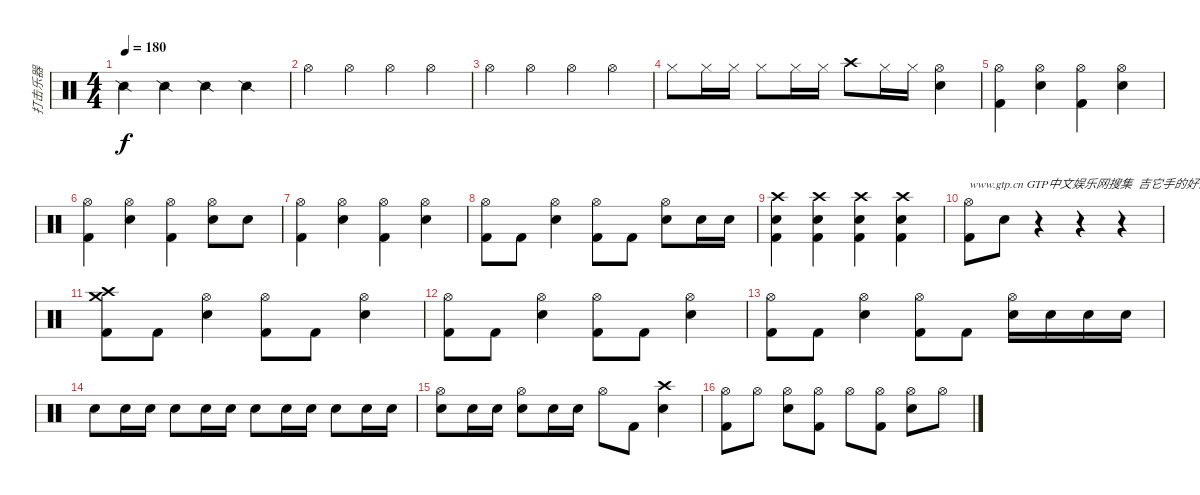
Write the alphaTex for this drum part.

\track ("打击乐器" "打击乐器") {instrument percussion}
\staff {score}
\articulation defaults
\ts (4 4)
\tempo 180
\clef neutral
\ks c "Snare (side stick) 2".4{dy f} "Snare (side stick) 2".4 "Snare (side stick) 2".4 "Snare (side stick) 2".4
|
"Hi-Hat (open)".4 "Hi-Hat (open)".4 "Hi-Hat (open)".4 "Hi-Hat (open)".4 |
"Hi-Hat (open)".4 "Hi-Hat (open)".4 "Hi-Hat (open)".4 "Hi-Hat (open)".4 |
"Hi-Hat (closed)".8 "Hi-Hat (closed)".16 "Hi-Hat (closed)".16 "Hi-Hat (closed)".8 "Hi-Hat (closed)".16 "Hi-Hat (closed)".16 "Crash high (hit)".8 "Hi-Hat (closed)".16 "Hi-Hat (closed)".16 ("Hi-Hat (open)" "Snare (hit) 2").4 |
("Hi-Hat (open)" "Kick (hit) 2").4 ("Hi-Hat (open)" "Snare (hit) 2").4 ("Hi-Hat (open)" "Kick (hit) 2").4 ("Hi-Hat (open)" "Snare (hit) 2").4 |
("Hi-Hat (open)" "Kick (hit) 2").4 ("Hi-Hat (open)" "Snare (hit) 2").4 ("Hi-Hat (open)" "Kick (hit) 2").4 ("Hi-Hat (open)" "Snare (hit) 2").8 "Snare (hit) 2".8 |
("Hi-Hat (open)" "Kick (hit) 2").4 ("Hi-Hat (open)" "Snare (hit) 2").4 ("Hi-Hat (open)" "Kick (hit) 2").4 ("Hi-Hat (open)" "Snare (hit) 2").4 |
("Hi-Hat (open)" "Kick (hit) 2").8 "Kick (hit) 2".8 ("Hi-Hat (open)" "Snare (hit) 2").4 ("Hi-Hat (open)" "Kick (hit) 2").8 "Kick (hit) 2".8 ("Hi-Hat (open)" "Snare (hit) 2").8 "Snare (hit) 2".16 "Snare (hit) 2".16 |
("Crash high (hit)" "Snare (hit) 2" "Kick (hit) 2").4 ("Crash high (hit)" "Snare (hit) 2" "Kick (hit) 2").4 ("Crash high (hit)" "Snare (hit) 2" "Kick (hit) 2").4 ("Crash high (hit)" "Snare (hit) 2" "Kick (hit) 2").4 |
("Hi-Hat (open)" "Kick (hit) 2").8{txt "www.gtp.cn GTP中文娱乐网搜集  吉它手的好去处"} "Snare (hit) 2".8 r.4 r.4 r.4 |
("Crash high (hit)" "Crash medium (hit)" "Kick (hit) 2").8 "Kick (hit) 2".8 ("Hi-Hat (open)" "Snare (hit) 2").4 ("Hi-Hat (open)" "Kick (hit) 2").8 "Kick (hit) 2".8 ("Hi-Hat (open)" "Snare (hit) 2").4 |
("Hi-Hat (open)" "Kick (hit) 2").8 "Kick (hit) 2".8 ("Hi-Hat (open)" "Snare (hit) 2").4 ("Hi-Hat (open)" "Kick (hit) 2").8 "Kick (hit) 2".8 ("Hi-Hat (open)" "Snare (hit) 2").4 |
("Hi-Hat (open)" "Kick (hit) 2").8 "Kick (hit) 2".8 ("Hi-Hat (open)" "Snare (hit) 2").4 ("Hi-Hat (open)" "Kick (hit) 2").8 "Kick (hit) 2".8 ("Hi-Hat (open)" "Snare (hit) 2").16 "Snare (hit) 2".16 "Snare (hit) 2".16 "Snare (hit) 2".16 |
"Snare (hit) 2".8 "Snare (hit) 2".16 "Snare (hit) 2".16 "Snare (hit) 2".8 "Snare (hit) 2".16 "Snare (hit) 2".16 "Snare (hit) 2".8 "Snare (hit) 2".16 "Snare (hit) 2".16 "Snare (hit) 2".8 "Snare (hit) 2".16 "Snare (hit) 2".16 |
("Hi-Hat (open)" "Snare (hit) 2").8 "Snare (hit) 2".16 "Snare (hit) 2".16 ("Hi-Hat (open)" "Snare (hit) 2").8 "Snare (hit) 2".16 "Snare (hit) 2".16 "Hi-Hat (open)".8 "Kick (hit) 2".8 ("Crash high (hit)" "Snare (hit) 2").4 |
("Hi-Hat (open)" "Kick (hit) 2").8 "Hi-Hat (open)".8 ("Hi-Hat (open)" "Snare (hit) 2").8 ("Hi-Hat (open)" "Kick (hit) 2").8 "Hi-Hat (open)".8 ("Hi-Hat (open)" "Kick (hit) 2").8 ("Hi-Hat (open)" "Snare (hit) 2").8 "Hi-Hat (open)".8
